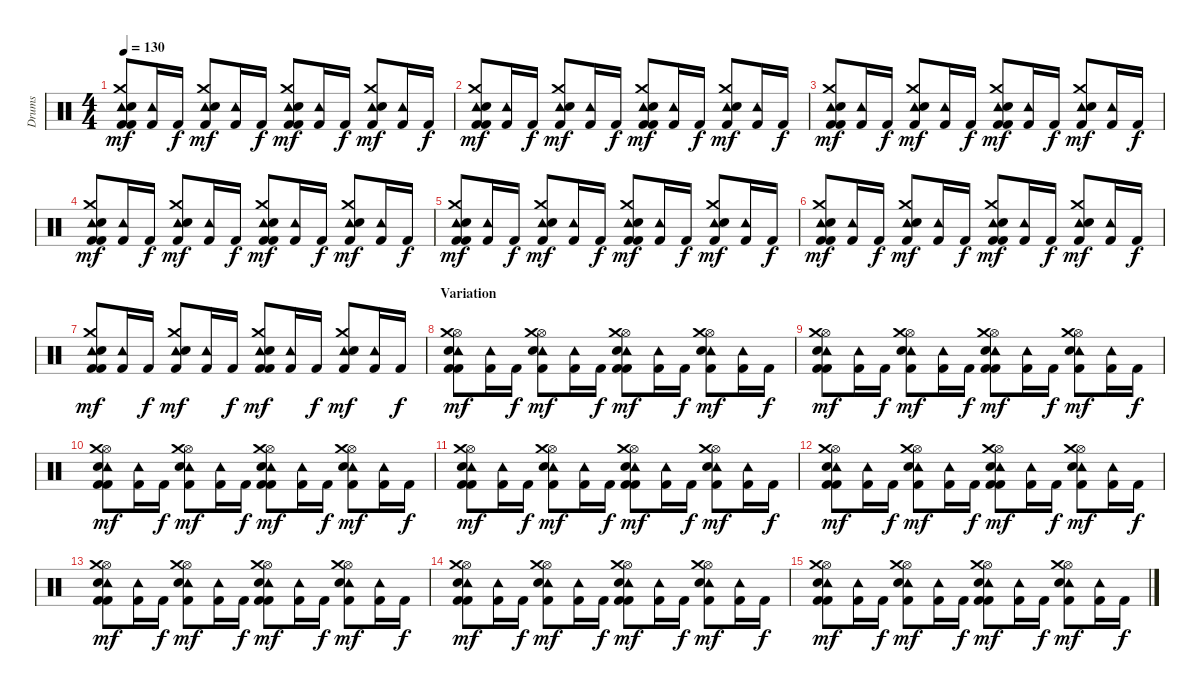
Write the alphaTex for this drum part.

\track ("Drums" "Drums") {instrument percussion}
\staff {score}
\articulation defaults
\ts (4 4)
\tempo 130
\clef neutral
\ks c
("Tambourine (hit)" "Snare (hit) 2" "Crash medium (hit)" "Kick (hit) 2" "Kick (hit) 2").8{dy mf} ("Tambourine (hit)" "Kick (hit) 2").16 "Kick (hit) 2".16{dy f} ("Tambourine (hit)" "Snare (hit) 2" "Crash medium (hit)" "Kick (hit) 2").8{dy mf} ("Tambourine (hit)" "Kick (hit) 2").16 "Kick (hit) 2".16{dy f} ("Tambourine (hit)" "Snare (hit) 2" "Crash medium (hit)" "Kick (hit) 2" "Kick (hit) 2").8{dy mf} ("Tambourine (hit)" "Kick (hit) 2").16 "Kick (hit) 2".16{dy f} ("Tambourine (hit)" "Snare (hit) 2" "Crash medium (hit)" "Kick (hit) 2").8{dy mf} ("Tambourine (hit)" "Kick (hit) 2").16 "Kick (hit) 2".16{dy f} |
("Tambourine (hit)" "Snare (hit) 2" "Crash medium (hit)" "Kick (hit) 2" "Kick (hit) 2").8{dy mf} ("Tambourine (hit)" "Kick (hit) 2").16 "Kick (hit) 2".16{dy f} ("Tambourine (hit)" "Snare (hit) 2" "Crash medium (hit)" "Kick (hit) 2").8{dy mf} ("Tambourine (hit)" "Kick (hit) 2").16 "Kick (hit) 2".16{dy f} ("Tambourine (hit)" "Snare (hit) 2" "Crash medium (hit)" "Kick (hit) 2" "Kick (hit) 2").8{dy mf} ("Tambourine (hit)" "Kick (hit) 2").16 "Kick (hit) 2".16{dy f} ("Tambourine (hit)" "Snare (hit) 2" "Crash medium (hit)" "Kick (hit) 2").8{dy mf} ("Tambourine (hit)" "Kick (hit) 2").16 "Kick (hit) 2".16{dy f} |
("Tambourine (hit)" "Snare (hit) 2" "Crash medium (hit)" "Kick (hit) 2" "Kick (hit) 2").8{dy mf} ("Tambourine (hit)" "Kick (hit) 2").16 "Kick (hit) 2".16{dy f} ("Tambourine (hit)" "Snare (hit) 2" "Crash medium (hit)" "Kick (hit) 2").8{dy mf} ("Tambourine (hit)" "Kick (hit) 2").16 "Kick (hit) 2".16{dy f} ("Tambourine (hit)" "Snare (hit) 2" "Crash medium (hit)" "Kick (hit) 2" "Kick (hit) 2").8{dy mf} ("Tambourine (hit)" "Kick (hit) 2").16 "Kick (hit) 2".16{dy f} ("Tambourine (hit)" "Snare (hit) 2" "Crash medium (hit)" "Kick (hit) 2").8{dy mf} ("Tambourine (hit)" "Kick (hit) 2").16 "Kick (hit) 2".16{dy f} |
("Tambourine (hit)" "Snare (hit) 2" "Crash medium (hit)" "Kick (hit) 2" "Kick (hit) 2").8{dy mf} ("Tambourine (hit)" "Kick (hit) 2").16 "Kick (hit) 2".16{dy f} ("Tambourine (hit)" "Snare (hit) 2" "Crash medium (hit)" "Kick (hit) 2").8{dy mf} ("Tambourine (hit)" "Kick (hit) 2").16 "Kick (hit) 2".16{dy f} ("Tambourine (hit)" "Snare (hit) 2" "Crash medium (hit)" "Kick (hit) 2" "Kick (hit) 2").8{dy mf} ("Tambourine (hit)" "Kick (hit) 2").16 "Kick (hit) 2".16{dy f} ("Tambourine (hit)" "Snare (hit) 2" "Crash medium (hit)" "Kick (hit) 2").8{dy mf} ("Tambourine (hit)" "Kick (hit) 2").16 "Kick (hit) 2".16{dy f} |
("Tambourine (hit)" "Snare (hit) 2" "Crash medium (hit)" "Kick (hit) 2" "Kick (hit) 2").8{dy mf} ("Tambourine (hit)" "Kick (hit) 2").16 "Kick (hit) 2".16{dy f} ("Tambourine (hit)" "Snare (hit) 2" "Crash medium (hit)" "Kick (hit) 2").8{dy mf} ("Tambourine (hit)" "Kick (hit) 2").16 "Kick (hit) 2".16{dy f} ("Tambourine (hit)" "Snare (hit) 2" "Crash medium (hit)" "Kick (hit) 2" "Kick (hit) 2").8{dy mf} ("Tambourine (hit)" "Kick (hit) 2").16 "Kick (hit) 2".16{dy f} ("Tambourine (hit)" "Snare (hit) 2" "Crash medium (hit)" "Kick (hit) 2").8{dy mf} ("Tambourine (hit)" "Kick (hit) 2").16 "Kick (hit) 2".16{dy f} |
("Tambourine (hit)" "Snare (hit) 2" "Crash medium (hit)" "Kick (hit) 2" "Kick (hit) 2").8{dy mf} ("Tambourine (hit)" "Kick (hit) 2").16 "Kick (hit) 2".16{dy f} ("Tambourine (hit)" "Snare (hit) 2" "Crash medium (hit)" "Kick (hit) 2").8{dy mf} ("Tambourine (hit)" "Kick (hit) 2").16 "Kick (hit) 2".16{dy f} ("Tambourine (hit)" "Snare (hit) 2" "Crash medium (hit)" "Kick (hit) 2" "Kick (hit) 2").8{dy mf} ("Tambourine (hit)" "Kick (hit) 2").16 "Kick (hit) 2".16{dy f} ("Tambourine (hit)" "Snare (hit) 2" "Crash medium (hit)" "Kick (hit) 2").8{dy mf} ("Tambourine (hit)" "Kick (hit) 2").16 "Kick (hit) 2".16{dy f} |
("Tambourine (hit)" "Snare (hit) 2" "Crash medium (hit)" "Kick (hit) 2" "Kick (hit) 2").8{dy mf} ("Tambourine (hit)" "Kick (hit) 2").16 "Kick (hit) 2".16{dy f} ("Tambourine (hit)" "Snare (hit) 2" "Crash medium (hit)" "Kick (hit) 2").8{dy mf} ("Tambourine (hit)" "Kick (hit) 2").16 "Kick (hit) 2".16{dy f} ("Tambourine (hit)" "Snare (hit) 2" "Crash medium (hit)" "Kick (hit) 2" "Kick (hit) 2").8{dy mf} ("Tambourine (hit)" "Kick (hit) 2").16 "Kick (hit) 2".16{dy f} ("Tambourine (hit)" "Snare (hit) 2" "Crash medium (hit)" "Kick (hit) 2").8{dy mf} ("Tambourine (hit)" "Kick (hit) 2").16 "Kick (hit) 2".16{dy f} |
\section ("" "Variation")
("Hi-Hat (open)" "Tambourine (hit)" "Snare (hit) 2" "Crash medium (hit)" "Kick (hit) 2" "Kick (hit) 2").8{dy mf} ("Tambourine (hit)" "Kick (hit) 2").16 "Kick (hit) 2".16{dy f} ("Hi-Hat (open)" "Tambourine (hit)" "Snare (hit) 2" "Crash medium (hit)" "Kick (hit) 2").8{dy mf} ("Tambourine (hit)" "Kick (hit) 2").16 "Kick (hit) 2".16{dy f} ("Hi-Hat (open)" "Tambourine (hit)" "Snare (hit) 2" "Crash medium (hit)" "Kick (hit) 2" "Kick (hit) 2").8{dy mf} ("Tambourine (hit)" "Kick (hit) 2").16 "Kick (hit) 2".16{dy f} ("Hi-Hat (open)" "Tambourine (hit)" "Snare (hit) 2" "Crash medium (hit)" "Kick (hit) 2").8{dy mf} ("Tambourine (hit)" "Kick (hit) 2").16 "Kick (hit) 2".16{dy f} |
("Hi-Hat (open)" "Tambourine (hit)" "Snare (hit) 2" "Crash medium (hit)" "Kick (hit) 2" "Kick (hit) 2").8{dy mf} ("Tambourine (hit)" "Kick (hit) 2").16 "Kick (hit) 2".16{dy f} ("Hi-Hat (open)" "Tambourine (hit)" "Snare (hit) 2" "Crash medium (hit)" "Kick (hit) 2").8{dy mf} ("Tambourine (hit)" "Kick (hit) 2").16 "Kick (hit) 2".16{dy f} ("Hi-Hat (open)" "Tambourine (hit)" "Snare (hit) 2" "Crash medium (hit)" "Kick (hit) 2" "Kick (hit) 2").8{dy mf} ("Tambourine (hit)" "Kick (hit) 2").16 "Kick (hit) 2".16{dy f} ("Hi-Hat (open)" "Tambourine (hit)" "Snare (hit) 2" "Crash medium (hit)" "Kick (hit) 2").8{dy mf} ("Tambourine (hit)" "Kick (hit) 2").16 "Kick (hit) 2".16{dy f} |
("Hi-Hat (open)" "Tambourine (hit)" "Snare (hit) 2" "Crash medium (hit)" "Kick (hit) 2" "Kick (hit) 2").8{dy mf} ("Tambourine (hit)" "Kick (hit) 2").16 "Kick (hit) 2".16{dy f} ("Hi-Hat (open)" "Tambourine (hit)" "Snare (hit) 2" "Crash medium (hit)" "Kick (hit) 2").8{dy mf} ("Tambourine (hit)" "Kick (hit) 2").16 "Kick (hit) 2".16{dy f} ("Hi-Hat (open)" "Tambourine (hit)" "Snare (hit) 2" "Crash medium (hit)" "Kick (hit) 2" "Kick (hit) 2").8{dy mf} ("Tambourine (hit)" "Kick (hit) 2").16 "Kick (hit) 2".16{dy f} ("Hi-Hat (open)" "Tambourine (hit)" "Snare (hit) 2" "Crash medium (hit)" "Kick (hit) 2").8{dy mf} ("Tambourine (hit)" "Kick (hit) 2").16 "Kick (hit) 2".16{dy f} |
("Hi-Hat (open)" "Tambourine (hit)" "Snare (hit) 2" "Crash medium (hit)" "Kick (hit) 2" "Kick (hit) 2").8{dy mf} ("Tambourine (hit)" "Kick (hit) 2").16 "Kick (hit) 2".16{dy f} ("Hi-Hat (open)" "Tambourine (hit)" "Snare (hit) 2" "Crash medium (hit)" "Kick (hit) 2").8{dy mf} ("Tambourine (hit)" "Kick (hit) 2").16 "Kick (hit) 2".16{dy f} ("Hi-Hat (open)" "Tambourine (hit)" "Snare (hit) 2" "Crash medium (hit)" "Kick (hit) 2" "Kick (hit) 2").8{dy mf} ("Tambourine (hit)" "Kick (hit) 2").16 "Kick (hit) 2".16{dy f} ("Hi-Hat (open)" "Tambourine (hit)" "Snare (hit) 2" "Crash medium (hit)" "Kick (hit) 2").8{dy mf} ("Tambourine (hit)" "Kick (hit) 2").16 "Kick (hit) 2".16{dy f} |
("Hi-Hat (open)" "Tambourine (hit)" "Snare (hit) 2" "Crash medium (hit)" "Kick (hit) 2" "Kick (hit) 2").8{dy mf} ("Tambourine (hit)" "Kick (hit) 2").16 "Kick (hit) 2".16{dy f} ("Hi-Hat (open)" "Tambourine (hit)" "Snare (hit) 2" "Crash medium (hit)" "Kick (hit) 2").8{dy mf} ("Tambourine (hit)" "Kick (hit) 2").16 "Kick (hit) 2".16{dy f} ("Hi-Hat (open)" "Tambourine (hit)" "Snare (hit) 2" "Crash medium (hit)" "Kick (hit) 2" "Kick (hit) 2").8{dy mf} ("Tambourine (hit)" "Kick (hit) 2").16 "Kick (hit) 2".16{dy f} ("Hi-Hat (open)" "Tambourine (hit)" "Snare (hit) 2" "Crash medium (hit)" "Kick (hit) 2").8{dy mf} ("Tambourine (hit)" "Kick (hit) 2").16 "Kick (hit) 2".16{dy f} |
("Hi-Hat (open)" "Tambourine (hit)" "Snare (hit) 2" "Crash medium (hit)" "Kick (hit) 2" "Kick (hit) 2").8{dy mf} ("Tambourine (hit)" "Kick (hit) 2").16 "Kick (hit) 2".16{dy f} ("Hi-Hat (open)" "Tambourine (hit)" "Snare (hit) 2" "Crash medium (hit)" "Kick (hit) 2").8{dy mf} ("Tambourine (hit)" "Kick (hit) 2").16 "Kick (hit) 2".16{dy f} ("Hi-Hat (open)" "Tambourine (hit)" "Snare (hit) 2" "Crash medium (hit)" "Kick (hit) 2" "Kick (hit) 2").8{dy mf} ("Tambourine (hit)" "Kick (hit) 2").16 "Kick (hit) 2".16{dy f} ("Hi-Hat (open)" "Tambourine (hit)" "Snare (hit) 2" "Crash medium (hit)" "Kick (hit) 2").8{dy mf} ("Tambourine (hit)" "Kick (hit) 2").16 "Kick (hit) 2".16{dy f} |
("Hi-Hat (open)" "Tambourine (hit)" "Snare (hit) 2" "Crash medium (hit)" "Kick (hit) 2" "Kick (hit) 2").8{dy mf} ("Tambourine (hit)" "Kick (hit) 2").16 "Kick (hit) 2".16{dy f} ("Hi-Hat (open)" "Tambourine (hit)" "Snare (hit) 2" "Crash medium (hit)" "Kick (hit) 2").8{dy mf} ("Tambourine (hit)" "Kick (hit) 2").16 "Kick (hit) 2".16{dy f} ("Hi-Hat (open)" "Tambourine (hit)" "Snare (hit) 2" "Crash medium (hit)" "Kick (hit) 2" "Kick (hit) 2").8{dy mf} ("Tambourine (hit)" "Kick (hit) 2").16 "Kick (hit) 2".16{dy f} ("Hi-Hat (open)" "Tambourine (hit)" "Snare (hit) 2" "Crash medium (hit)" "Kick (hit) 2").8{dy mf} ("Tambourine (hit)" "Kick (hit) 2").16 "Kick (hit) 2".16{dy f} |
("Hi-Hat (open)" "Tambourine (hit)" "Snare (hit) 2" "Crash medium (hit)" "Kick (hit) 2" "Kick (hit) 2").8{dy mf} ("Tambourine (hit)" "Kick (hit) 2").16 "Kick (hit) 2".16{dy f} ("Hi-Hat (open)" "Tambourine (hit)" "Snare (hit) 2" "Crash medium (hit)" "Kick (hit) 2").8{dy mf} ("Tambourine (hit)" "Kick (hit) 2").16 "Kick (hit) 2".16{dy f} ("Hi-Hat (open)" "Tambourine (hit)" "Snare (hit) 2" "Crash medium (hit)" "Kick (hit) 2" "Kick (hit) 2").8{dy mf} ("Tambourine (hit)" "Kick (hit) 2").16 "Kick (hit) 2".16{dy f} ("Hi-Hat (open)" "Tambourine (hit)" "Snare (hit) 2" "Crash medium (hit)" "Kick (hit) 2").8{dy mf} ("Tambourine (hit)" "Kick (hit) 2").16 "Kick (hit) 2".16{dy f}
